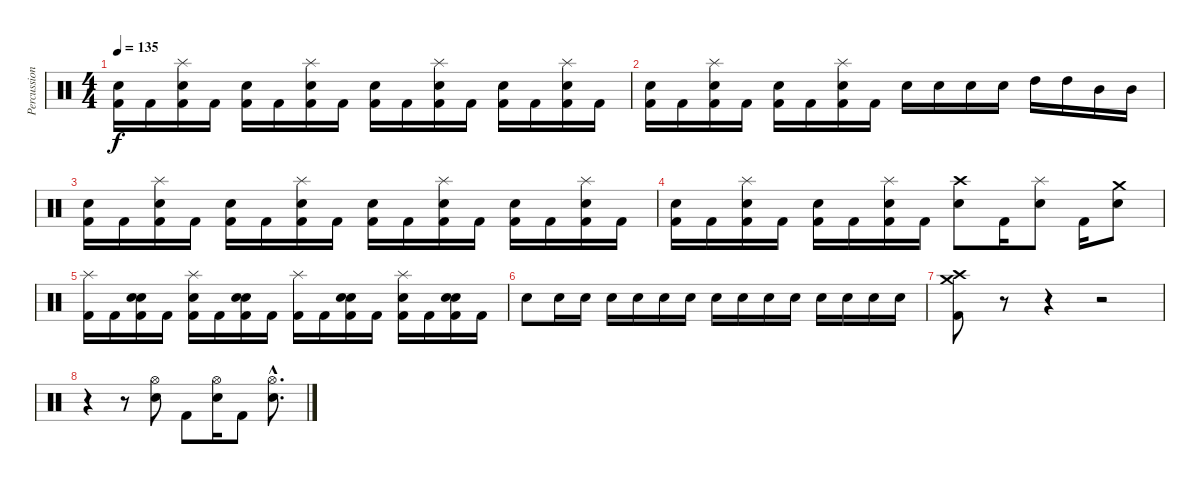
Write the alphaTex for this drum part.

\track ("Percussion" "Percussion") {instrument percussion}
\staff {score}
\articulation defaults
\ts (4 4)
\tempo 135
\clef neutral
\ks c
("Snare (hit)" "Kick (hit) 2").16{dy f} "Kick (hit) 2".16 ("Splash (hit)" "Snare (hit) 2" "Kick (hit) 2").16 "Kick (hit) 2".16 ("Snare (hit)" "Kick (hit) 2").16 "Kick (hit) 2".16 ("Splash (hit)" "Snare (hit) 2" "Kick (hit) 2").16 "Kick (hit) 2".16 ("Snare (hit)" "Kick (hit) 2").16 "Kick (hit) 2".16 ("Splash (hit)" "Snare (hit) 2" "Kick (hit) 2").16 "Kick (hit) 2".16 ("Snare (hit)" "Kick (hit) 2").16 "Kick (hit) 2".16 ("Splash (hit)" "Snare (hit) 2" "Kick (hit) 2").16 "Kick (hit) 2".16 |
("Snare (hit)" "Kick (hit) 2").16 "Kick (hit) 2".16 ("Splash (hit)" "Snare (hit) 2" "Kick (hit) 2").16 "Kick (hit) 2".16 ("Snare (hit)" "Kick (hit) 2").16 "Kick (hit) 2".16 ("Splash (hit)" "Snare (hit) 2" "Kick (hit) 2").16 "Kick (hit) 2".16 "Snare (hit) 2".16 "Snare (hit) 2".16 "Snare (hit) 2".16 "Snare (hit) 2".16 "High Tom (hit)".16 "High Tom (hit)".16 "Mid Tom (hit)".16 "Mid Tom (hit)".16 |
("Snare (hit)" "Kick (hit) 2").16 "Kick (hit) 2".16 ("Splash (hit)" "Snare (hit) 2" "Kick (hit) 2").16 "Kick (hit) 2".16 ("Snare (hit)" "Kick (hit) 2").16 "Kick (hit) 2".16 ("Splash (hit)" "Snare (hit) 2" "Kick (hit) 2").16 "Kick (hit) 2".16 ("Snare (hit)" "Kick (hit) 2").16 "Kick (hit) 2".16 ("Splash (hit)" "Snare (hit) 2" "Kick (hit) 2").16 "Kick (hit) 2".16 ("Snare (hit)" "Kick (hit) 2").16 "Kick (hit) 2".16 ("Splash (hit)" "Snare (hit) 2" "Kick (hit) 2").16 "Kick (hit) 2".16 |
("Snare (hit)" "Kick (hit) 2").16 "Kick (hit) 2".16 ("Splash (hit)" "Snare (hit) 2" "Kick (hit) 2").16 "Kick (hit) 2".16 ("Snare (hit)" "Kick (hit) 2").16 "Kick (hit) 2".16 ("Splash (hit)" "Snare (hit) 2" "Kick (hit) 2").16 "Kick (hit) 2".16 ("Crash high (hit)" "Snare (hit) 2").8 "Kick (hit) 2".16 ("Splash (hit)" "Snare (hit) 2").8 "Kick (hit) 2".16 ("Crash medium (hit)" "Snare (hit) 2").8 |
("Splash (hit)" "Kick (hit) 2").16 "Kick (hit) 2".16 ("Snare (hit)" "Snare (hit)" "Kick (hit) 2").16 "Kick (hit) 2".16 ("Splash (hit)" "Snare (hit) 2" "Kick (hit) 2").16 "Kick (hit) 2".16 ("Snare (hit)" "Snare (hit)" "Kick (hit) 2").16 "Kick (hit) 2".16 ("Splash (hit)" "Kick (hit) 2").16 "Kick (hit) 2".16 ("Snare (hit)" "Snare (hit)" "Kick (hit) 2").16 "Kick (hit) 2".16 ("Splash (hit)" "Snare (hit) 2" "Kick (hit) 2").16 "Kick (hit) 2".16 ("Snare (hit)" "Snare (hit)" "Kick (hit) 2").16 "Kick (hit) 2".16 |
"Snare (hit) 2".8 "Snare (hit) 2".16 "Snare (hit) 2".16 "Snare (hit) 2".16 "Snare (hit) 2".16 "Snare (hit) 2".16 "Snare (hit) 2".16 "Snare (hit) 2".16 "Snare (hit) 2".16 "Snare (hit) 2".16 "Snare (hit) 2".16 "Snare (hit) 2".16 "Snare (hit) 2".16 "Snare (hit) 2".16 "Snare (hit) 2".16 |
("Crash high (hit)" "Crash medium (hit)" "Kick (hit) 2").8 r.8 r.4 r.2 |
r.4 r.8 ("Hi-Hat (open)" "Snare (hit) 2").8 "Kick (hit) 2".8 ("Hi-Hat (open)" "Snare (hit) 2").16 "Kick (hit) 2".8 ("Hi-Hat (open)"{hac} "Snare (hit) 2"{hac}).8{d}
